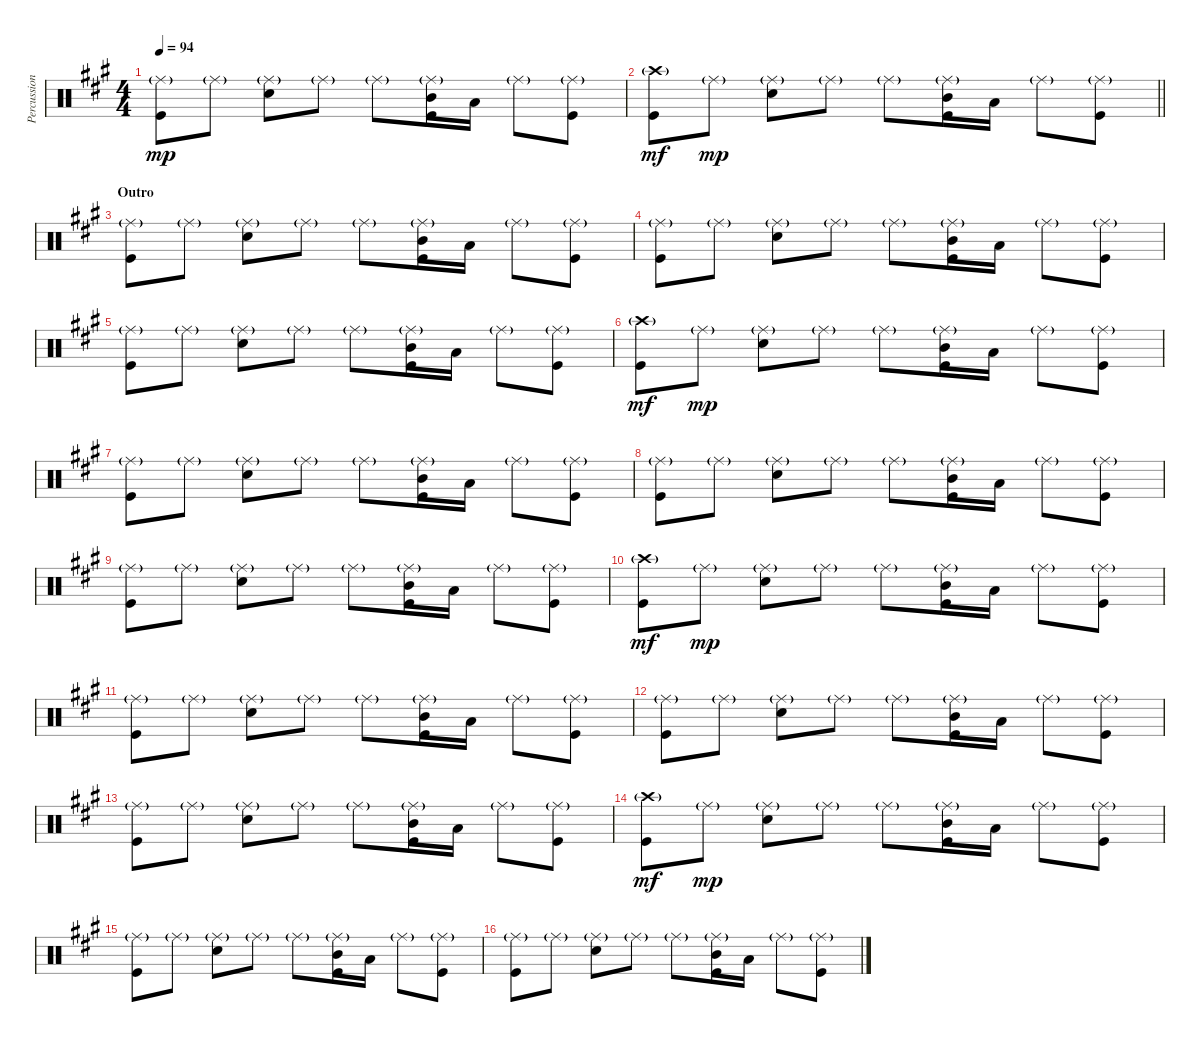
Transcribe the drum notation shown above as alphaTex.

\track ("Percussion" "Percussion") {instrument percussion}
\staff {score}
\articulation defaults
\ts (4 4)
\tempo 94
\clef neutral
\ks a
("Ride (middle)"{g} "Kick (hit)").8{dy mp} "Ride (middle)"{g}.8 ("Ride (middle)"{g} "Electric Snare (hit)").8 "Ride (middle)"{g}.8 "Ride (middle)"{g}.8 ("Ride (middle)"{g} "Mid Tom (hit)" "Kick (hit)").16 "Low Tom (hit)".16 "Ride (middle)"{g}.8 ("Ride (middle)"{g} "Kick (hit)").8 |
\barLineRight lightlight
("Crash high (hit)"{g} "Kick (hit)").8{dy mf} "Ride (middle)"{g}.8{dy mp} ("Ride (middle)"{g} "Electric Snare (hit)").8 "Ride (middle)"{g}.8 "Ride (middle)"{g}.8 ("Ride (middle)"{g} "Mid Tom (hit)" "Kick (hit)").16 "Low Tom (hit)".16 "Ride (middle)"{g}.8 ("Ride (middle)"{g} "Kick (hit)").8 |
\section ("" "Outro")
("Ride (middle)"{g} "Kick (hit)").8 "Ride (middle)"{g}.8 ("Ride (middle)"{g} "Electric Snare (hit)").8 "Ride (middle)"{g}.8 "Ride (middle)"{g}.8 ("Ride (middle)"{g} "Mid Tom (hit)" "Kick (hit)").16 "Low Tom (hit)".16 "Ride (middle)"{g}.8 ("Ride (middle)"{g} "Kick (hit)").8 |
("Ride (middle)"{g} "Kick (hit)").8 "Ride (middle)"{g}.8 ("Ride (middle)"{g} "Electric Snare (hit)").8 "Ride (middle)"{g}.8 "Ride (middle)"{g}.8 ("Ride (middle)"{g} "Mid Tom (hit)" "Kick (hit)").16 "Low Tom (hit)".16 "Ride (middle)"{g}.8 ("Ride (middle)"{g} "Kick (hit)").8 |
("Ride (middle)"{g} "Kick (hit)").8 "Ride (middle)"{g}.8 ("Ride (middle)"{g} "Electric Snare (hit)").8 "Ride (middle)"{g}.8 "Ride (middle)"{g}.8 ("Ride (middle)"{g} "Mid Tom (hit)" "Kick (hit)").16 "Low Tom (hit)".16 "Ride (middle)"{g}.8 ("Ride (middle)"{g} "Kick (hit)").8 |
("Crash high (hit)"{g} "Kick (hit)").8{dy mf} "Ride (middle)"{g}.8{dy mp} ("Ride (middle)"{g} "Electric Snare (hit)").8 "Ride (middle)"{g}.8 "Ride (middle)"{g}.8 ("Ride (middle)"{g} "Mid Tom (hit)" "Kick (hit)").16 "Low Tom (hit)".16 "Ride (middle)"{g}.8 ("Ride (middle)"{g} "Kick (hit)").8 |
("Ride (middle)"{g} "Kick (hit)").8 "Ride (middle)"{g}.8 ("Ride (middle)"{g} "Electric Snare (hit)").8 "Ride (middle)"{g}.8 "Ride (middle)"{g}.8 ("Ride (middle)"{g} "Mid Tom (hit)" "Kick (hit)").16 "Low Tom (hit)".16 "Ride (middle)"{g}.8 ("Ride (middle)"{g} "Kick (hit)").8 |
("Ride (middle)"{g} "Kick (hit)").8 "Ride (middle)"{g}.8 ("Ride (middle)"{g} "Electric Snare (hit)").8 "Ride (middle)"{g}.8 "Ride (middle)"{g}.8 ("Ride (middle)"{g} "Mid Tom (hit)" "Kick (hit)").16 "Low Tom (hit)".16 "Ride (middle)"{g}.8 ("Ride (middle)"{g} "Kick (hit)").8 |
("Ride (middle)"{g} "Kick (hit)").8 "Ride (middle)"{g}.8 ("Ride (middle)"{g} "Electric Snare (hit)").8 "Ride (middle)"{g}.8 "Ride (middle)"{g}.8 ("Ride (middle)"{g} "Mid Tom (hit)" "Kick (hit)").16 "Low Tom (hit)".16 "Ride (middle)"{g}.8 ("Ride (middle)"{g} "Kick (hit)").8 |
("Crash high (hit)"{g} "Kick (hit)").8{dy mf} "Ride (middle)"{g}.8{dy mp} ("Ride (middle)"{g} "Electric Snare (hit)").8 "Ride (middle)"{g}.8 "Ride (middle)"{g}.8 ("Ride (middle)"{g} "Mid Tom (hit)" "Kick (hit)").16 "Low Tom (hit)".16 "Ride (middle)"{g}.8 ("Ride (middle)"{g} "Kick (hit)").8 |
("Ride (middle)"{g} "Kick (hit)").8 "Ride (middle)"{g}.8 ("Ride (middle)"{g} "Electric Snare (hit)").8 "Ride (middle)"{g}.8 "Ride (middle)"{g}.8 ("Ride (middle)"{g} "Mid Tom (hit)" "Kick (hit)").16 "Low Tom (hit)".16 "Ride (middle)"{g}.8 ("Ride (middle)"{g} "Kick (hit)").8 |
("Ride (middle)"{g} "Kick (hit)").8 "Ride (middle)"{g}.8 ("Ride (middle)"{g} "Electric Snare (hit)").8 "Ride (middle)"{g}.8 "Ride (middle)"{g}.8 ("Ride (middle)"{g} "Mid Tom (hit)" "Kick (hit)").16 "Low Tom (hit)".16 "Ride (middle)"{g}.8 ("Ride (middle)"{g} "Kick (hit)").8 |
("Ride (middle)"{g} "Kick (hit)").8 "Ride (middle)"{g}.8 ("Ride (middle)"{g} "Electric Snare (hit)").8 "Ride (middle)"{g}.8 "Ride (middle)"{g}.8 ("Ride (middle)"{g} "Mid Tom (hit)" "Kick (hit)").16 "Low Tom (hit)".16 "Ride (middle)"{g}.8 ("Ride (middle)"{g} "Kick (hit)").8 |
("Crash high (hit)"{g} "Kick (hit)").8{dy mf} "Ride (middle)"{g}.8{dy mp} ("Ride (middle)"{g} "Electric Snare (hit)").8 "Ride (middle)"{g}.8 "Ride (middle)"{g}.8 ("Ride (middle)"{g} "Mid Tom (hit)" "Kick (hit)").16 "Low Tom (hit)".16 "Ride (middle)"{g}.8 ("Ride (middle)"{g} "Kick (hit)").8 |
("Ride (middle)"{g} "Kick (hit)").8 "Ride (middle)"{g}.8 ("Ride (middle)"{g} "Electric Snare (hit)").8 "Ride (middle)"{g}.8 "Ride (middle)"{g}.8 ("Ride (middle)"{g} "Mid Tom (hit)" "Kick (hit)").16 "Low Tom (hit)".16 "Ride (middle)"{g}.8 ("Ride (middle)"{g} "Kick (hit)").8 |
("Ride (middle)"{g} "Kick (hit)").8 "Ride (middle)"{g}.8 ("Ride (middle)"{g} "Electric Snare (hit)").8 "Ride (middle)"{g}.8 "Ride (middle)"{g}.8 ("Ride (middle)"{g} "Mid Tom (hit)" "Kick (hit)").16 "Low Tom (hit)".16 "Ride (middle)"{g}.8 ("Ride (middle)"{g} "Kick (hit)").8
